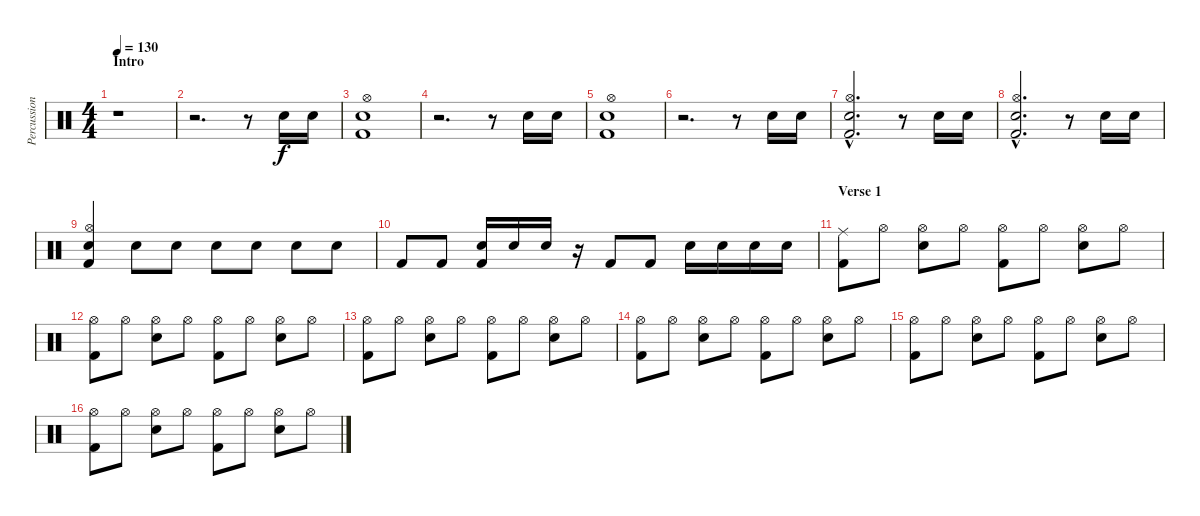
\track ("Percussion" "Percussion") {instrument percussion}
\staff {score}
\articulation defaults
\ts (4 4)
\section ("" "Intro")
\tempo 130
\clef neutral
\ks c
r.1{dy f} |
r.2{d} r.8 "Snare (hit) 2".16 "Snare (hit) 2".16 |
("Hi-Hat (open)" "Snare (hit) 2" "Kick (hit) 2").1 |
r.2{d} r.8 "Snare (hit) 2".16 "Snare (hit) 2".16 |
("Hi-Hat (open)" "Snare (hit) 2" "Kick (hit) 2").1 |
r.2{d} r.8 "Snare (hit) 2".16 "Snare (hit) 2".16 |
("Hi-Hat (open)"{hac} "Snare (hit) 2"{hac} "Kick (hit) 2"{hac}).2{d} r.8 "Snare (hit) 2".16 "Snare (hit) 2".16 |
("Hi-Hat (open)"{hac} "Snare (hit) 2"{hac} "Kick (hit) 2"{hac}).2{d} r.8 "Snare (hit) 2".16 "Snare (hit) 2".16 |
("Hi-Hat (open)" "Snare (hit) 2" "Kick (hit) 2").4 "Snare (hit) 2".8{volume 2} "Snare (hit) 2".8{volume 12} "Snare (hit) 2".8 "Snare (hit) 2".8 "Snare (hit) 2".8 "Snare (hit) 2".8 |
"Kick (hit) 2".8 "Kick (hit) 2".8 ("Snare (hit) 2" "Kick (hit) 2").16 "Snare (hit) 2".16 "Snare (hit) 2".16 r.16 "Kick (hit) 2".8 "Kick (hit) 2".8 "Snare (hit) 2".16 "Snare (hit) 2".16 "Snare (hit) 2".16 "Snare (hit) 2".16 |
\section ("" "Verse 1")
("Ride (middle)" "Kick (hit) 2").8 "Hi-Hat (open)".8 ("Hi-Hat (open)" "Snare (hit) 2").8 "Hi-Hat (open)".8 ("Hi-Hat (open)" "Kick (hit) 2").8 "Hi-Hat (open)".8 ("Hi-Hat (open)" "Snare (hit) 2").8 "Hi-Hat (open)".8 |
("Hi-Hat (open)" "Kick (hit) 2").8 "Hi-Hat (open)".8 ("Hi-Hat (open)" "Snare (hit) 2").8 "Hi-Hat (open)".8 ("Hi-Hat (open)" "Kick (hit) 2").8 "Hi-Hat (open)".8 ("Hi-Hat (open)" "Snare (hit) 2").8 "Hi-Hat (open)".8 |
("Hi-Hat (open)" "Kick (hit) 2").8 "Hi-Hat (open)".8 ("Hi-Hat (open)" "Snare (hit) 2").8 "Hi-Hat (open)".8 ("Hi-Hat (open)" "Kick (hit) 2").8 "Hi-Hat (open)".8 ("Hi-Hat (open)" "Snare (hit) 2").8 "Hi-Hat (open)".8 |
("Hi-Hat (open)" "Kick (hit) 2").8 "Hi-Hat (open)".8 ("Hi-Hat (open)" "Snare (hit) 2").8 "Hi-Hat (open)".8 ("Hi-Hat (open)" "Kick (hit) 2").8 "Hi-Hat (open)".8 ("Hi-Hat (open)" "Snare (hit) 2").8 "Hi-Hat (open)".8 |
("Hi-Hat (open)" "Kick (hit) 2").8 "Hi-Hat (open)".8 ("Hi-Hat (open)" "Snare (hit) 2").8 "Hi-Hat (open)".8 ("Hi-Hat (open)" "Kick (hit) 2").8 "Hi-Hat (open)".8 ("Hi-Hat (open)" "Snare (hit) 2").8 "Hi-Hat (open)".8 |
("Hi-Hat (open)" "Kick (hit) 2").8 "Hi-Hat (open)".8 ("Hi-Hat (open)" "Snare (hit) 2").8 "Hi-Hat (open)".8 ("Hi-Hat (open)" "Kick (hit) 2").8 "Hi-Hat (open)".8 ("Hi-Hat (open)" "Snare (hit) 2").8 "Hi-Hat (open)".8
